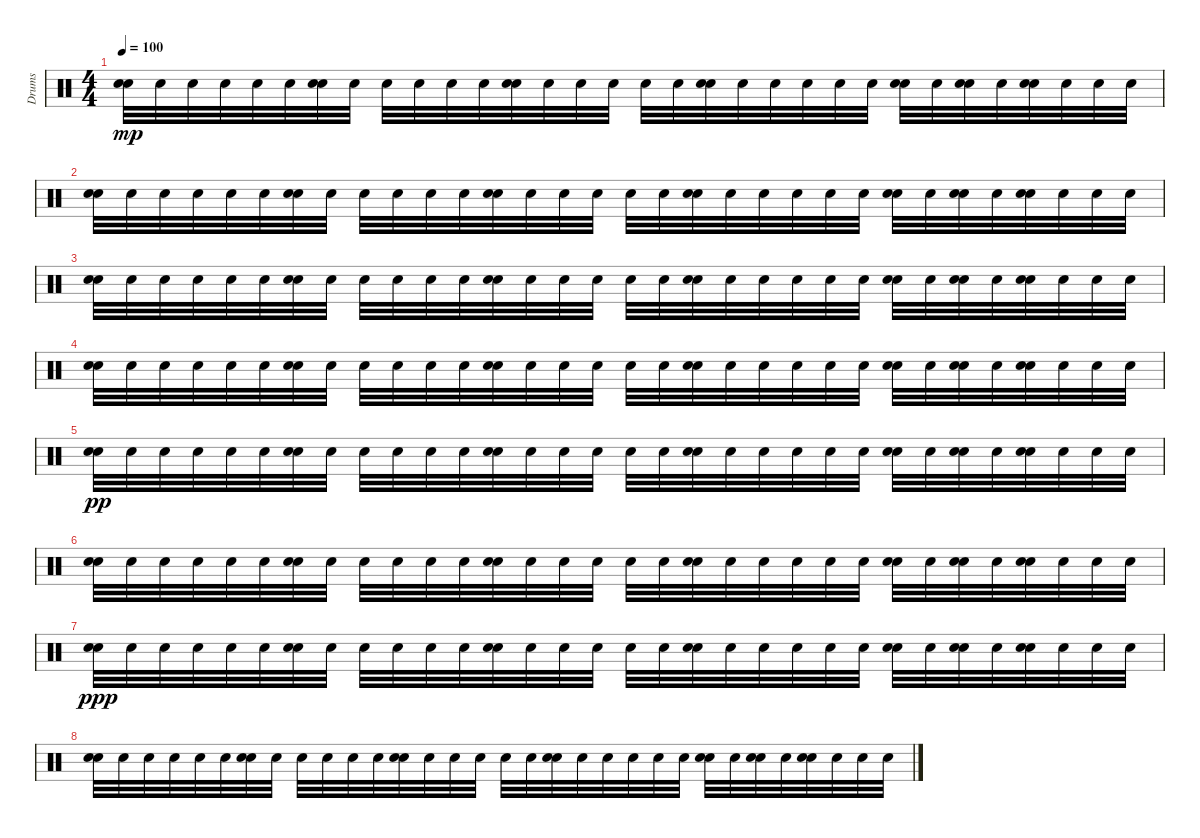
\track ("Drums" "Drums") {instrument percussion}
\staff {score}
\articulation defaults
\ts (4 4)
\tempo 100
\clef neutral
\ks c
("Electric Snare (hit)" "Electric Snare (hit)").32{dy mp} "Electric Snare (hit)".32 "Electric Snare (hit)".32 "Electric Snare (hit)".32 "Electric Snare (hit)".32 "Electric Snare (hit)".32 ("Electric Snare (hit)" "Electric Snare (hit)").32 "Electric Snare (hit)".32 "Electric Snare (hit)".32 "Electric Snare (hit)".32 "Electric Snare (hit)".32 "Electric Snare (hit)".32 ("Electric Snare (hit)" "Electric Snare (hit)").32 "Electric Snare (hit)".32 "Electric Snare (hit)".32 "Electric Snare (hit)".32 "Electric Snare (hit)".32 "Electric Snare (hit)".32 ("Electric Snare (hit)" "Electric Snare (hit)").32 "Electric Snare (hit)".32 "Electric Snare (hit)".32 "Electric Snare (hit)".32 "Electric Snare (hit)".32 "Electric Snare (hit)".32 ("Electric Snare (hit)" "Electric Snare (hit)").32 "Electric Snare (hit)".32 ("Electric Snare (hit)" "Electric Snare (hit)").32 "Electric Snare (hit)".32 ("Electric Snare (hit)" "Electric Snare (hit)").32 "Electric Snare (hit)".32 "Electric Snare (hit)".32 "Electric Snare (hit)".32 |
("Electric Snare (hit)" "Electric Snare (hit)").32 "Electric Snare (hit)".32 "Electric Snare (hit)".32 "Electric Snare (hit)".32 "Electric Snare (hit)".32 "Electric Snare (hit)".32 ("Electric Snare (hit)" "Electric Snare (hit)").32 "Electric Snare (hit)".32 "Electric Snare (hit)".32 "Electric Snare (hit)".32 "Electric Snare (hit)".32 "Electric Snare (hit)".32 ("Electric Snare (hit)" "Electric Snare (hit)").32 "Electric Snare (hit)".32 "Electric Snare (hit)".32 "Electric Snare (hit)".32 "Electric Snare (hit)".32 "Electric Snare (hit)".32 ("Electric Snare (hit)" "Electric Snare (hit)").32 "Electric Snare (hit)".32 "Electric Snare (hit)".32 "Electric Snare (hit)".32 "Electric Snare (hit)".32 "Electric Snare (hit)".32 ("Electric Snare (hit)" "Electric Snare (hit)").32 "Electric Snare (hit)".32 ("Electric Snare (hit)" "Electric Snare (hit)").32 "Electric Snare (hit)".32 ("Electric Snare (hit)" "Electric Snare (hit)").32 "Electric Snare (hit)".32 "Electric Snare (hit)".32 "Electric Snare (hit)".32 |
("Electric Snare (hit)" "Electric Snare (hit)").32 "Electric Snare (hit)".32 "Electric Snare (hit)".32 "Electric Snare (hit)".32 "Electric Snare (hit)".32 "Electric Snare (hit)".32 ("Electric Snare (hit)" "Electric Snare (hit)").32 "Electric Snare (hit)".32 "Electric Snare (hit)".32 "Electric Snare (hit)".32 "Electric Snare (hit)".32 "Electric Snare (hit)".32 ("Electric Snare (hit)" "Electric Snare (hit)").32 "Electric Snare (hit)".32 "Electric Snare (hit)".32 "Electric Snare (hit)".32 "Electric Snare (hit)".32 "Electric Snare (hit)".32 ("Electric Snare (hit)" "Electric Snare (hit)").32 "Electric Snare (hit)".32 "Electric Snare (hit)".32 "Electric Snare (hit)".32 "Electric Snare (hit)".32 "Electric Snare (hit)".32 ("Electric Snare (hit)" "Electric Snare (hit)").32 "Electric Snare (hit)".32 ("Electric Snare (hit)" "Electric Snare (hit)").32 "Electric Snare (hit)".32 ("Electric Snare (hit)" "Electric Snare (hit)").32 "Electric Snare (hit)".32 "Electric Snare (hit)".32 "Electric Snare (hit)".32 |
("Electric Snare (hit)" "Electric Snare (hit)").32 "Electric Snare (hit)".32 "Electric Snare (hit)".32 "Electric Snare (hit)".32 "Electric Snare (hit)".32 "Electric Snare (hit)".32 ("Electric Snare (hit)" "Electric Snare (hit)").32 "Electric Snare (hit)".32 "Electric Snare (hit)".32 "Electric Snare (hit)".32 "Electric Snare (hit)".32 "Electric Snare (hit)".32 ("Electric Snare (hit)" "Electric Snare (hit)").32 "Electric Snare (hit)".32 "Electric Snare (hit)".32 "Electric Snare (hit)".32 "Electric Snare (hit)".32 "Electric Snare (hit)".32 ("Electric Snare (hit)" "Electric Snare (hit)").32 "Electric Snare (hit)".32 "Electric Snare (hit)".32 "Electric Snare (hit)".32 "Electric Snare (hit)".32 "Electric Snare (hit)".32 ("Electric Snare (hit)" "Electric Snare (hit)").32 "Electric Snare (hit)".32 ("Electric Snare (hit)" "Electric Snare (hit)").32 "Electric Snare (hit)".32 ("Electric Snare (hit)" "Electric Snare (hit)").32 "Electric Snare (hit)".32 "Electric Snare (hit)".32 "Electric Snare (hit)".32 |
("Electric Snare (hit)" "Electric Snare (hit)").32{dy pp} "Electric Snare (hit)".32 "Electric Snare (hit)".32 "Electric Snare (hit)".32 "Electric Snare (hit)".32 "Electric Snare (hit)".32 ("Electric Snare (hit)" "Electric Snare (hit)").32 "Electric Snare (hit)".32 "Electric Snare (hit)".32 "Electric Snare (hit)".32 "Electric Snare (hit)".32 "Electric Snare (hit)".32 ("Electric Snare (hit)" "Electric Snare (hit)").32 "Electric Snare (hit)".32 "Electric Snare (hit)".32 "Electric Snare (hit)".32 "Electric Snare (hit)".32 "Electric Snare (hit)".32 ("Electric Snare (hit)" "Electric Snare (hit)").32 "Electric Snare (hit)".32 "Electric Snare (hit)".32 "Electric Snare (hit)".32 "Electric Snare (hit)".32 "Electric Snare (hit)".32 ("Electric Snare (hit)" "Electric Snare (hit)").32 "Electric Snare (hit)".32 ("Electric Snare (hit)" "Electric Snare (hit)").32 "Electric Snare (hit)".32 ("Electric Snare (hit)" "Electric Snare (hit)").32 "Electric Snare (hit)".32 "Electric Snare (hit)".32 "Electric Snare (hit)".32 |
("Electric Snare (hit)" "Electric Snare (hit)").32 "Electric Snare (hit)".32 "Electric Snare (hit)".32 "Electric Snare (hit)".32 "Electric Snare (hit)".32 "Electric Snare (hit)".32 ("Electric Snare (hit)" "Electric Snare (hit)").32 "Electric Snare (hit)".32 "Electric Snare (hit)".32 "Electric Snare (hit)".32 "Electric Snare (hit)".32 "Electric Snare (hit)".32 ("Electric Snare (hit)" "Electric Snare (hit)").32 "Electric Snare (hit)".32 "Electric Snare (hit)".32 "Electric Snare (hit)".32 "Electric Snare (hit)".32 "Electric Snare (hit)".32 ("Electric Snare (hit)" "Electric Snare (hit)").32 "Electric Snare (hit)".32 "Electric Snare (hit)".32 "Electric Snare (hit)".32 "Electric Snare (hit)".32 "Electric Snare (hit)".32 ("Electric Snare (hit)" "Electric Snare (hit)").32 "Electric Snare (hit)".32 ("Electric Snare (hit)" "Electric Snare (hit)").32 "Electric Snare (hit)".32 ("Electric Snare (hit)" "Electric Snare (hit)").32 "Electric Snare (hit)".32 "Electric Snare (hit)".32 "Electric Snare (hit)".32 |
("Electric Snare (hit)" "Electric Snare (hit)").32{dy ppp} "Electric Snare (hit)".32 "Electric Snare (hit)".32 "Electric Snare (hit)".32 "Electric Snare (hit)".32 "Electric Snare (hit)".32 ("Electric Snare (hit)" "Electric Snare (hit)").32 "Electric Snare (hit)".32 "Electric Snare (hit)".32 "Electric Snare (hit)".32 "Electric Snare (hit)".32 "Electric Snare (hit)".32 ("Electric Snare (hit)" "Electric Snare (hit)").32 "Electric Snare (hit)".32 "Electric Snare (hit)".32 "Electric Snare (hit)".32 "Electric Snare (hit)".32 "Electric Snare (hit)".32 ("Electric Snare (hit)" "Electric Snare (hit)").32 "Electric Snare (hit)".32 "Electric Snare (hit)".32 "Electric Snare (hit)".32 "Electric Snare (hit)".32 "Electric Snare (hit)".32 ("Electric Snare (hit)" "Electric Snare (hit)").32 "Electric Snare (hit)".32 ("Electric Snare (hit)" "Electric Snare (hit)").32 "Electric Snare (hit)".32 ("Electric Snare (hit)" "Electric Snare (hit)").32 "Electric Snare (hit)".32 "Electric Snare (hit)".32 "Electric Snare (hit)".32 |
("Electric Snare (hit)" "Electric Snare (hit)").32 "Electric Snare (hit)".32 "Electric Snare (hit)".32 "Electric Snare (hit)".32 "Electric Snare (hit)".32 "Electric Snare (hit)".32 ("Electric Snare (hit)" "Electric Snare (hit)").32 "Electric Snare (hit)".32 "Electric Snare (hit)".32 "Electric Snare (hit)".32 "Electric Snare (hit)".32 "Electric Snare (hit)".32 ("Electric Snare (hit)" "Electric Snare (hit)").32 "Electric Snare (hit)".32 "Electric Snare (hit)".32 "Electric Snare (hit)".32 "Electric Snare (hit)".32 "Electric Snare (hit)".32 ("Electric Snare (hit)" "Electric Snare (hit)").32 "Electric Snare (hit)".32 "Electric Snare (hit)".32 "Electric Snare (hit)".32 "Electric Snare (hit)".32 "Electric Snare (hit)".32 ("Electric Snare (hit)" "Electric Snare (hit)").32 "Electric Snare (hit)".32 ("Electric Snare (hit)" "Electric Snare (hit)").32 "Electric Snare (hit)".32 ("Electric Snare (hit)" "Electric Snare (hit)").32 "Electric Snare (hit)".32 "Electric Snare (hit)".32 "Electric Snare (hit)".32
